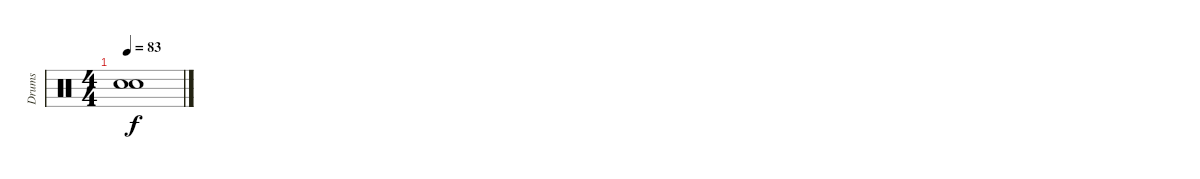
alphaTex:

\track ("Drums" "Drums") {instrument percussion}
\staff {score}
\articulation defaults
\ts (4 4)
\tempo 83
\clef neutral
\ks c
("Snare (hit)"{t} "Snare (hit)"{t}).1{dy f}
